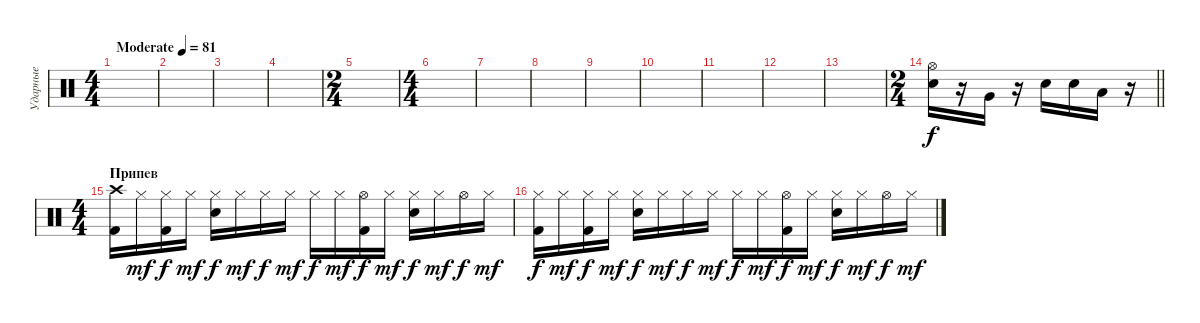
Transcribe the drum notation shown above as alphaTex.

\track ("Ударные" "Ударные") {instrument percussion}
\staff {score}
\articulation defaults
\ts (4 4)
\tempo (81 "Moderate")
\clef neutral
\ks c
|
|
|
|
\ts (2 4)
|
\ts (4 4)
|
|
|
|
|
|
|
|
\ts (2 4)
\barLineRight lightlight
("Hi-Hat (open)" "Electric Snare (hit)").16 r.16 "Very Low Tom (hit)".16 r.16 "Electric Snare (hit)".16 "Electric Snare (hit)".16 "Low Tom (hit)".16 r.16 |
\ts (4 4)
\section ("" "Припев")
("Crash high (hit)" "Kick (hit) 2").16 "Hi-Hat (closed)".16{dy mf} ("Hi-Hat (closed)" "Kick (hit) 2").16{dy f} "Hi-Hat (closed)".16{dy mf} ("Hi-Hat (closed)" "Electric Snare (hit)").16{dy f} "Hi-Hat (closed)".16{dy mf} "Hi-Hat (closed)".16{dy f} "Hi-Hat (closed)".16{dy mf} "Hi-Hat (closed)".16{dy f} "Hi-Hat (closed)".16{dy mf} ("Hi-Hat (open)" "Kick (hit) 2").16{dy f} "Hi-Hat (closed)".16{dy mf} ("Hi-Hat (closed)" "Electric Snare (hit)").16{dy f} "Hi-Hat (closed)".16{dy mf} "Hi-Hat (open)".16{dy f} "Hi-Hat (closed)".16{dy mf} |
("Hi-Hat (closed)" "Kick (hit) 2").16{dy f} "Hi-Hat (closed)".16{dy mf} ("Hi-Hat (closed)" "Kick (hit) 2").16{dy f} "Hi-Hat (closed)".16{dy mf} ("Hi-Hat (closed)" "Electric Snare (hit)").16{dy f} "Hi-Hat (closed)".16{dy mf} "Hi-Hat (closed)".16{dy f} "Hi-Hat (closed)".16{dy mf} "Hi-Hat (closed)".16{dy f} "Hi-Hat (closed)".16{dy mf} ("Hi-Hat (open)" "Kick (hit) 2").16{dy f} "Hi-Hat (closed)".16{dy mf} ("Hi-Hat (closed)" "Electric Snare (hit)").16{dy f} "Hi-Hat (closed)".16{dy mf} "Hi-Hat (open)".16{dy f} "Hi-Hat (closed)".16{dy mf}
